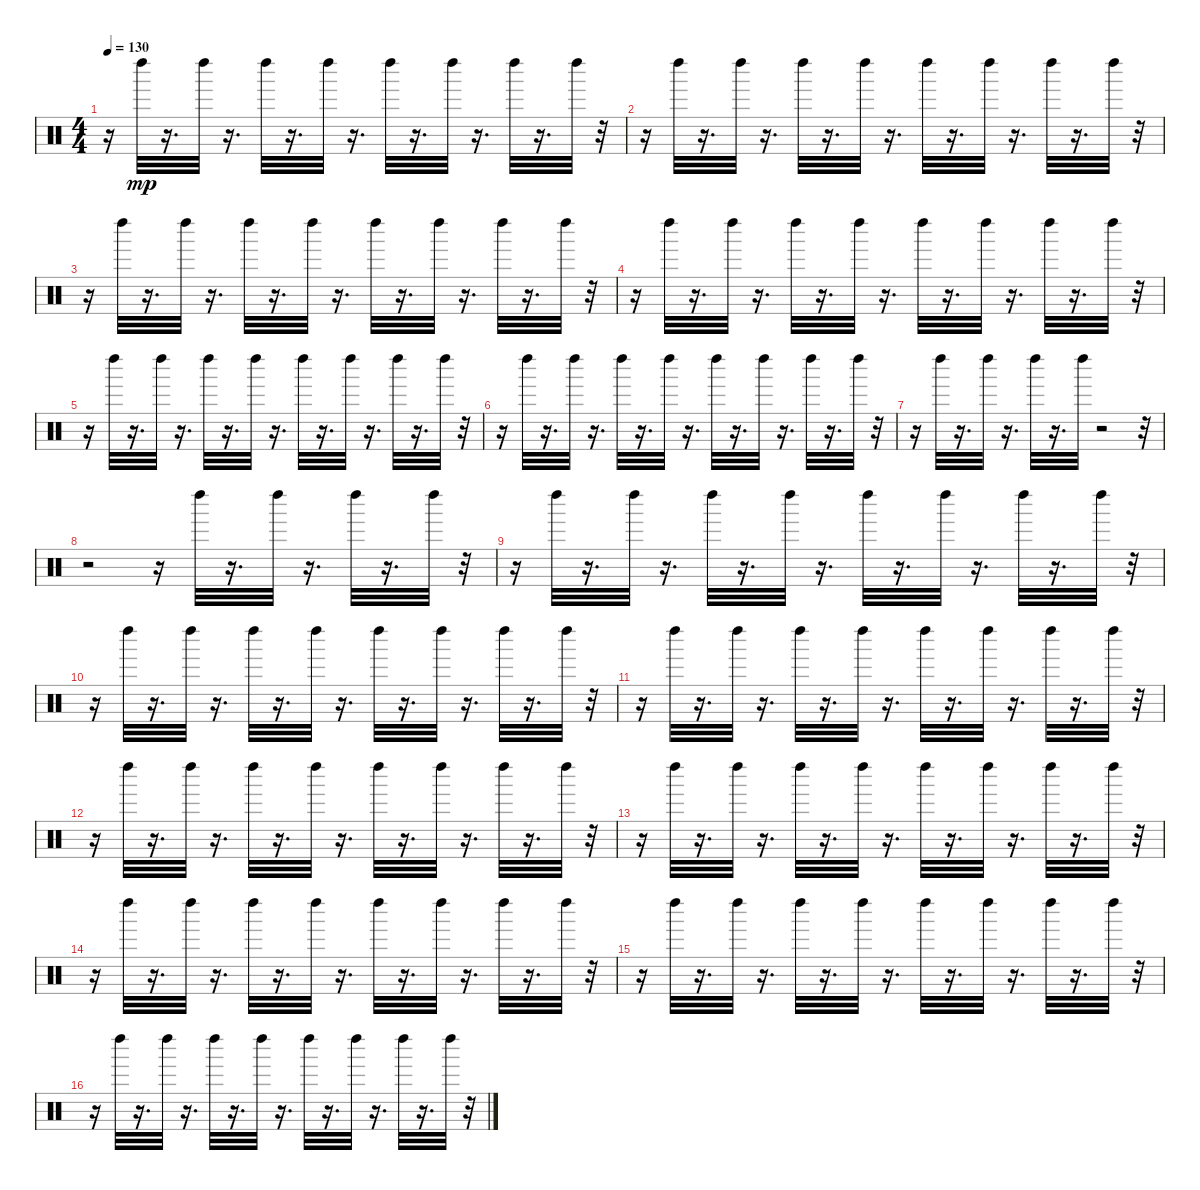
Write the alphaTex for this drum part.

\track "" {instrument percussion}
\staff {score}
\articulation defaults
\ts (4 4)
\tempo 130
\clef neutral
\ks c
r.16{dy mp} "Left Maraca (hit)".32 r.16{d} "Left Maraca (hit)".32 r.16{d} "Left Maraca (hit)".32 r.16{d} "Left Maraca (hit)".32 r.16{d} "Left Maraca (hit)".32 r.16{d} "Left Maraca (hit)".32 r.16{d} "Left Maraca (hit)".32 r.16{d} "Left Maraca (hit)".32 r.32 |
r.16 "Left Maraca (hit)".32 r.16{d} "Left Maraca (hit)".32 r.16{d} "Left Maraca (hit)".32 r.16{d} "Left Maraca (hit)".32 r.16{d} "Left Maraca (hit)".32 r.16{d} "Left Maraca (hit)".32 r.16{d} "Left Maraca (hit)".32 r.16{d} "Left Maraca (hit)".32 r.32 |
r.16 "Left Maraca (hit)".32 r.16{d} "Left Maraca (hit)".32 r.16{d} "Left Maraca (hit)".32 r.16{d} "Left Maraca (hit)".32 r.16{d} "Left Maraca (hit)".32 r.16{d} "Left Maraca (hit)".32 r.16{d} "Left Maraca (hit)".32 r.16{d} "Left Maraca (hit)".32 r.32 |
r.16 "Left Maraca (hit)".32 r.16{d} "Left Maraca (hit)".32 r.16{d} "Left Maraca (hit)".32 r.16{d} "Left Maraca (hit)".32 r.16{d} "Left Maraca (hit)".32 r.16{d} "Left Maraca (hit)".32 r.16{d} "Left Maraca (hit)".32 r.16{d} "Left Maraca (hit)".32 r.32 |
r.16 "Left Maraca (hit)".32 r.16{d} "Left Maraca (hit)".32 r.16{d} "Left Maraca (hit)".32 r.16{d} "Left Maraca (hit)".32 r.16{d} "Left Maraca (hit)".32 r.16{d} "Left Maraca (hit)".32 r.16{d} "Left Maraca (hit)".32 r.16{d} "Left Maraca (hit)".32 r.32 |
r.16 "Left Maraca (hit)".32 r.16{d} "Left Maraca (hit)".32 r.16{d} "Left Maraca (hit)".32 r.16{d} "Left Maraca (hit)".32 r.16{d} "Left Maraca (hit)".32 r.16{d} "Left Maraca (hit)".32 r.16{d} "Left Maraca (hit)".32 r.16{d} "Left Maraca (hit)".32 r.32 |
r.16 "Left Maraca (hit)".32 r.16{d} "Left Maraca (hit)".32 r.16{d} "Left Maraca (hit)".32 r.16{d} "Left Maraca (hit)".32 r.2 r.32 |
r.2 r.16 "Left Maraca (hit)".32 r.16{d} "Left Maraca (hit)".32 r.16{d} "Left Maraca (hit)".32 r.16{d} "Left Maraca (hit)".32 r.32 |
r.16 "Left Maraca (hit)".32 r.16{d} "Left Maraca (hit)".32 r.16{d} "Left Maraca (hit)".32 r.16{d} "Left Maraca (hit)".32 r.16{d} "Left Maraca (hit)".32 r.16{d} "Left Maraca (hit)".32 r.16{d} "Left Maraca (hit)".32 r.16{d} "Left Maraca (hit)".32 r.32 |
r.16 "Left Maraca (hit)".32 r.16{d} "Left Maraca (hit)".32 r.16{d} "Left Maraca (hit)".32 r.16{d} "Left Maraca (hit)".32 r.16{d} "Left Maraca (hit)".32 r.16{d} "Left Maraca (hit)".32 r.16{d} "Left Maraca (hit)".32 r.16{d} "Left Maraca (hit)".32 r.32 |
r.16 "Left Maraca (hit)".32 r.16{d} "Left Maraca (hit)".32 r.16{d} "Left Maraca (hit)".32 r.16{d} "Left Maraca (hit)".32 r.16{d} "Left Maraca (hit)".32 r.16{d} "Left Maraca (hit)".32 r.16{d} "Left Maraca (hit)".32 r.16{d} "Left Maraca (hit)".32 r.32 |
r.16 "Left Maraca (hit)".32 r.16{d} "Left Maraca (hit)".32 r.16{d} "Left Maraca (hit)".32 r.16{d} "Left Maraca (hit)".32 r.16{d} "Left Maraca (hit)".32 r.16{d} "Left Maraca (hit)".32 r.16{d} "Left Maraca (hit)".32 r.16{d} "Left Maraca (hit)".32 r.32 |
r.16 "Left Maraca (hit)".32 r.16{d} "Left Maraca (hit)".32 r.16{d} "Left Maraca (hit)".32 r.16{d} "Left Maraca (hit)".32 r.16{d} "Left Maraca (hit)".32 r.16{d} "Left Maraca (hit)".32 r.16{d} "Left Maraca (hit)".32 r.16{d} "Left Maraca (hit)".32 r.32 |
r.16 "Left Maraca (hit)".32 r.16{d} "Left Maraca (hit)".32 r.16{d} "Left Maraca (hit)".32 r.16{d} "Left Maraca (hit)".32 r.16{d} "Left Maraca (hit)".32 r.16{d} "Left Maraca (hit)".32 r.16{d} "Left Maraca (hit)".32 r.16{d} "Left Maraca (hit)".32 r.32 |
r.16 "Left Maraca (hit)".32 r.16{d} "Left Maraca (hit)".32 r.16{d} "Left Maraca (hit)".32 r.16{d} "Left Maraca (hit)".32 r.16{d} "Left Maraca (hit)".32 r.16{d} "Left Maraca (hit)".32 r.16{d} "Left Maraca (hit)".32 r.16{d} "Left Maraca (hit)".32 r.32 |
r.16 "Left Maraca (hit)".32 r.16{d} "Left Maraca (hit)".32 r.16{d} "Left Maraca (hit)".32 r.16{d} "Left Maraca (hit)".32 r.16{d} "Left Maraca (hit)".32 r.16{d} "Left Maraca (hit)".32 r.16{d} "Left Maraca (hit)".32 r.16{d} "Left Maraca (hit)".32 r.32
